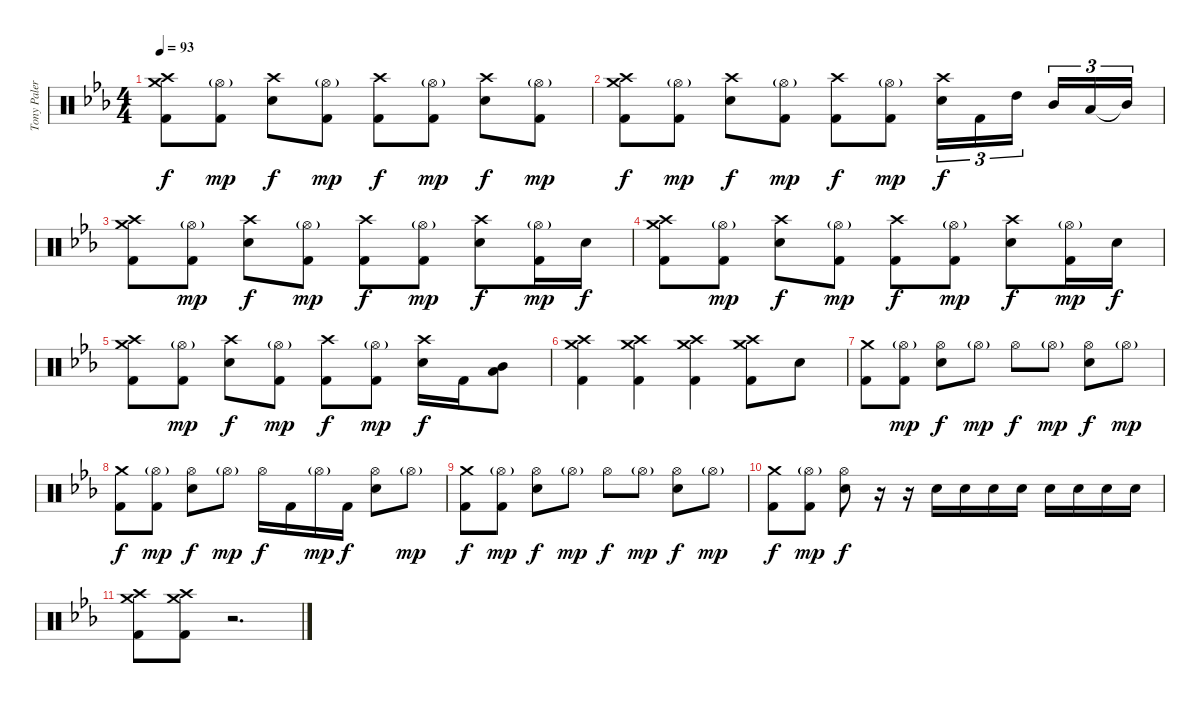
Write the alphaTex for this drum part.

\track ("Tony Palermo" "Tony Paler") {instrument percussion}
\staff {score}
\articulation defaults
\ts (4 4)
\tempo 93
\clef neutral
\ks cminor
("Crash high (hit)" "Crash medium (hit)" "Kick (hit) 2").8{dy f} ("Hi-Hat (open)"{g} "Kick (hit) 2").8{dy mp} ("Crash high (hit)" "Electric Snare (hit)").8{dy f} ("Hi-Hat (open)"{g} "Kick (hit) 2").8{dy mp} ("Crash high (hit)" "Kick (hit) 2").8{dy f} ("Hi-Hat (open)"{g} "Kick (hit) 2").8{dy mp} ("Crash high (hit)" "Electric Snare (hit)").8{dy f} ("Hi-Hat (open)"{g} "Kick (hit) 2").8{dy mp} |
("Crash high (hit)" "Crash medium (hit)" "Kick (hit) 2").8{dy f} ("Hi-Hat (open)"{g} "Kick (hit) 2").8{dy mp} ("Crash high (hit)" "Electric Snare (hit)").8{dy f} ("Hi-Hat (open)"{g} "Kick (hit) 2").8{dy mp} ("Crash high (hit)" "Kick (hit) 2").8{dy f} ("Hi-Hat (open)"{g} "Kick (hit) 2").8{dy mp} ("Crash high (hit)" "Electric Snare (hit)").16{tu (3 2) dy f} "Kick (hit) 2".16{tu (3 2)} "High Tom (hit)".16{tu (3 2) beam splitsecondary} "Mid Tom (hit)".16{tu (3 2)} "Low Tom (hit)".16{tu (3 2)} "Mid Tom (hit)"{t}.16{tu (3 2)} |
("Crash high (hit)" "Crash medium (hit)" "Kick (hit) 2").8 ("Hi-Hat (open)"{g} "Kick (hit) 2").8{dy mp} ("Crash high (hit)" "Electric Snare (hit)").8{dy f} ("Hi-Hat (open)"{g} "Kick (hit) 2").8{dy mp} ("Crash high (hit)" "Kick (hit) 2").8{dy f} ("Hi-Hat (open)"{g} "Kick (hit) 2").8{dy mp} ("Crash high (hit)" "Electric Snare (hit)").8{dy f} ("Hi-Hat (open)"{g} "Kick (hit) 2").16{dy mp} "Electric Snare (hit)".16{dy f} |
("Crash high (hit)" "Crash medium (hit)" "Kick (hit) 2").8 ("Hi-Hat (open)"{g} "Kick (hit) 2").8{dy mp} ("Crash high (hit)" "Electric Snare (hit)").8{dy f} ("Hi-Hat (open)"{g} "Kick (hit) 2").8{dy mp} ("Crash high (hit)" "Kick (hit) 2").8{dy f} ("Hi-Hat (open)"{g} "Kick (hit) 2").8{dy mp} ("Crash high (hit)" "Electric Snare (hit)").8{dy f} ("Hi-Hat (open)"{g} "Kick (hit) 2").16{dy mp} "Electric Snare (hit)".16{dy f} |
("Crash high (hit)" "Crash medium (hit)" "Kick (hit) 2").8 ("Hi-Hat (open)"{g} "Kick (hit) 2").8{dy mp} ("Crash high (hit)" "Electric Snare (hit)").8{dy f} ("Hi-Hat (open)"{g} "Kick (hit) 2").8{dy mp} ("Crash high (hit)" "Kick (hit) 2").8{dy f} ("Hi-Hat (open)"{g} "Kick (hit) 2").8{dy mp} ("Crash high (hit)" "Electric Snare (hit)").16{dy f} "Kick (hit) 2".16 ("Mid Tom (hit)" "Low Tom (hit)").8{bd 60} |
("Crash high (hit)" "Crash medium (hit)" "Kick (hit) 2").4 ("Crash high (hit)" "Crash medium (hit)" "Kick (hit) 2").4 ("Crash high (hit)" "Crash medium (hit)" "Kick (hit) 2").4 ("Crash high (hit)" "Crash medium (hit)" "Kick (hit) 2").8 "Electric Snare (hit)".8 |
("Crash medium (hit)" "Kick (hit) 2").8 ("Hi-Hat (open)"{g} "Kick (hit) 2").8{dy mp} ("Hi-Hat (open)" "Electric Snare (hit)").8{dy f} "Hi-Hat (open)"{g}.8{dy mp} "Hi-Hat (open)".8{dy f} "Hi-Hat (open)"{g}.8{dy mp} ("Hi-Hat (open)" "Electric Snare (hit)").8{dy f} "Hi-Hat (open)"{g}.8{dy mp} |
("Crash medium (hit)" "Kick (hit) 2").8{dy f} ("Hi-Hat (open)"{g} "Kick (hit) 2").8{dy mp} ("Hi-Hat (open)" "Electric Snare (hit)").8{dy f} "Hi-Hat (open)"{g}.8{dy mp} "Hi-Hat (open)".16{dy f} "Kick (hit) 2".16 "Hi-Hat (open)"{g}.16{dy mp} "Kick (hit) 2".16{dy f} ("Hi-Hat (open)" "Electric Snare (hit)").8 "Hi-Hat (open)"{g}.8{dy mp} |
("Crash medium (hit)" "Kick (hit) 2").8{dy f} ("Hi-Hat (open)"{g} "Kick (hit) 2").8{dy mp} ("Hi-Hat (open)" "Electric Snare (hit)").8{dy f} "Hi-Hat (open)"{g}.8{dy mp} "Hi-Hat (open)".8{dy f} "Hi-Hat (open)"{g}.8{dy mp} ("Hi-Hat (open)" "Electric Snare (hit)").8{dy f} "Hi-Hat (open)"{g}.8{dy mp} |
("Crash medium (hit)" "Kick (hit) 2").8{dy f} ("Hi-Hat (open)"{g} "Kick (hit) 2").8{dy mp} ("Hi-Hat (open)" "Electric Snare (hit)").8{dy f} r.16 r.16 "Electric Snare (hit)".16 "Electric Snare (hit)".16 "Electric Snare (hit)".16 "Electric Snare (hit)".16 "Electric Snare (hit)".16 "Electric Snare (hit)".16 "Electric Snare (hit)".16 "Electric Snare (hit)".16 |
("Crash high (hit)" "Crash medium (hit)" "Kick (hit) 2").8 ("Crash high (hit)" "Crash medium (hit)" "Kick (hit) 2").8 r.2{d}
